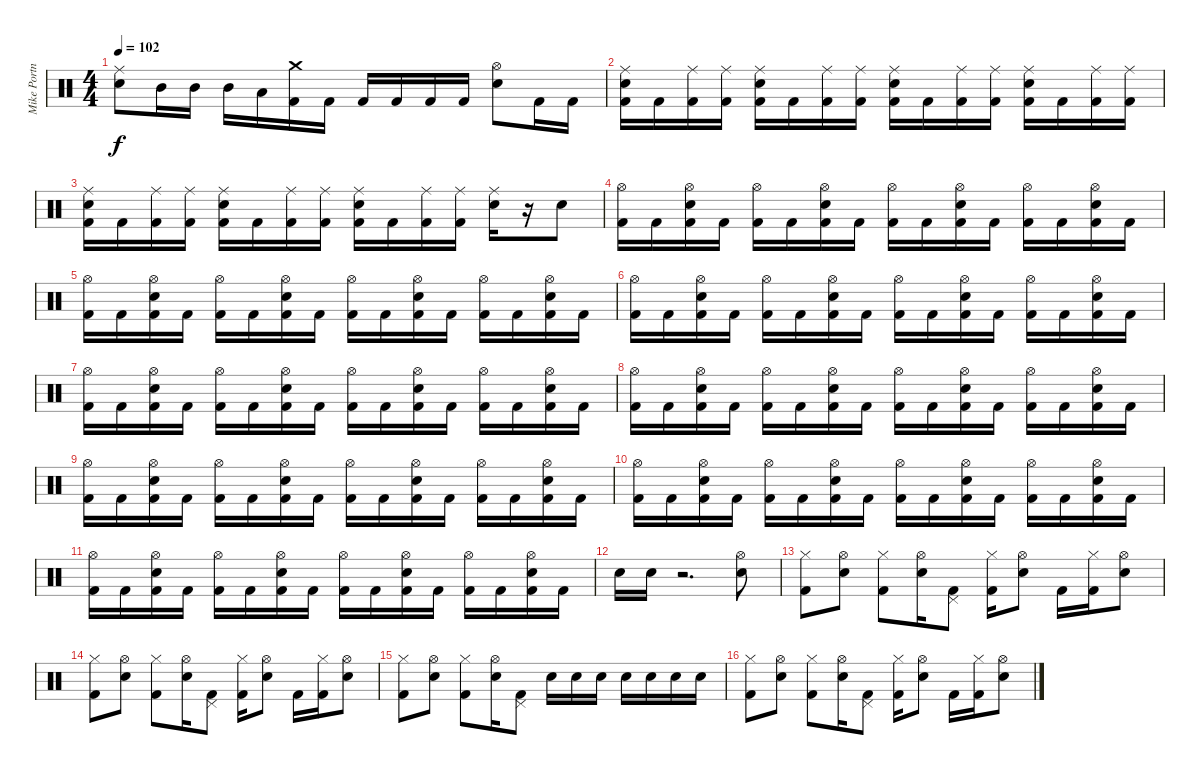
\track ("Mike Portnoy Drum " "Mike Portn") {instrument percussion}
\staff {score}
\articulation defaults
\ts (4 4)
\tempo 102
\clef neutral
\ks c
("Ride (middle)" "Electric Snare (hit)").8{dy f} "Mid Tom (hit)".16 "Mid Tom (hit)".16 "Mid Tom (hit)".16 "Low Tom (hit)".16 ("Crash medium (hit)" "Kick (hit) 2").16 "Kick (hit) 2".16 "Kick (hit) 2".16 "Kick (hit) 2".16 "Kick (hit) 2".16 "Kick (hit) 2".16 ("Hi-Hat (open)" "Electric Snare (hit)").8 "Kick (hit) 2".16 "Kick (hit) 2".16 |
("Ride (middle)" "Electric Snare (hit)" "Kick (hit) 2").16 "Kick (hit) 2".16 ("Ride (middle)" "Kick (hit) 2").16 ("Ride (middle)" "Kick (hit) 2").16 ("Ride (middle)" "Electric Snare (hit)" "Kick (hit) 2").16 "Kick (hit) 2".16 ("Ride (middle)" "Kick (hit) 2").16 ("Ride (middle)" "Kick (hit) 2").16 ("Ride (middle)" "Electric Snare (hit)" "Kick (hit) 2").16 "Kick (hit) 2".16 ("Ride (middle)" "Kick (hit) 2").16 ("Ride (middle)" "Kick (hit) 2").16 ("Ride (middle)" "Electric Snare (hit)" "Kick (hit) 2").16 "Kick (hit) 2".16 ("Ride (middle)" "Kick (hit) 2").16 ("Ride (middle)" "Kick (hit) 2").16 |
("Ride (middle)" "Electric Snare (hit)" "Kick (hit) 2").16 "Kick (hit) 2".16 ("Ride (middle)" "Kick (hit) 2").16 ("Ride (middle)" "Kick (hit) 2").16 ("Ride (middle)" "Electric Snare (hit)" "Kick (hit) 2").16 "Kick (hit) 2".16 ("Ride (middle)" "Kick (hit) 2").16 ("Ride (middle)" "Kick (hit) 2").16 ("Ride (middle)" "Electric Snare (hit)" "Kick (hit) 2").16 "Kick (hit) 2".16 ("Ride (middle)" "Kick (hit) 2").16 ("Ride (middle)" "Kick (hit) 2").16 ("Ride (middle)" "Electric Snare (hit)").16 r.16 "Electric Snare (hit)".8 |
("Hi-Hat (open)" "Kick (hit) 2").16 "Kick (hit) 2".16 ("Hi-Hat (open)" "Electric Snare (hit)" "Kick (hit) 2").16 "Kick (hit) 2".16 ("Hi-Hat (open)" "Kick (hit) 2").16 "Kick (hit) 2".16 ("Hi-Hat (open)" "Electric Snare (hit)" "Kick (hit) 2").16 "Kick (hit) 2".16 ("Hi-Hat (open)" "Kick (hit) 2").16 "Kick (hit) 2".16 ("Hi-Hat (open)" "Electric Snare (hit)" "Kick (hit) 2").16 "Kick (hit) 2".16 ("Hi-Hat (open)" "Kick (hit) 2").16 "Kick (hit) 2".16 ("Hi-Hat (open)" "Electric Snare (hit)" "Kick (hit) 2").16 "Kick (hit) 2".16 |
("Hi-Hat (open)" "Kick (hit) 2").16 "Kick (hit) 2".16 ("Hi-Hat (open)" "Electric Snare (hit)" "Kick (hit) 2").16 "Kick (hit) 2".16 ("Hi-Hat (open)" "Kick (hit) 2").16 "Kick (hit) 2".16 ("Hi-Hat (open)" "Electric Snare (hit)" "Kick (hit) 2").16 "Kick (hit) 2".16 ("Hi-Hat (open)" "Kick (hit) 2").16 "Kick (hit) 2".16 ("Hi-Hat (open)" "Electric Snare (hit)" "Kick (hit) 2").16 "Kick (hit) 2".16 ("Hi-Hat (open)" "Kick (hit) 2").16 "Kick (hit) 2".16 ("Hi-Hat (open)" "Electric Snare (hit)" "Kick (hit) 2").16 "Kick (hit) 2".16 |
("Hi-Hat (open)" "Kick (hit) 2").16 "Kick (hit) 2".16 ("Hi-Hat (open)" "Electric Snare (hit)" "Kick (hit) 2").16 "Kick (hit) 2".16 ("Hi-Hat (open)" "Kick (hit) 2").16 "Kick (hit) 2".16 ("Hi-Hat (open)" "Electric Snare (hit)" "Kick (hit) 2").16 "Kick (hit) 2".16 ("Hi-Hat (open)" "Kick (hit) 2").16 "Kick (hit) 2".16 ("Hi-Hat (open)" "Electric Snare (hit)" "Kick (hit) 2").16 "Kick (hit) 2".16 ("Hi-Hat (open)" "Kick (hit) 2").16 "Kick (hit) 2".16 ("Hi-Hat (open)" "Electric Snare (hit)" "Kick (hit) 2").16 "Kick (hit) 2".16 |
("Hi-Hat (open)" "Kick (hit) 2").16 "Kick (hit) 2".16 ("Hi-Hat (open)" "Electric Snare (hit)" "Kick (hit) 2").16 "Kick (hit) 2".16 ("Hi-Hat (open)" "Kick (hit) 2").16 "Kick (hit) 2".16 ("Hi-Hat (open)" "Electric Snare (hit)" "Kick (hit) 2").16 "Kick (hit) 2".16 ("Hi-Hat (open)" "Kick (hit) 2").16 "Kick (hit) 2".16 ("Hi-Hat (open)" "Electric Snare (hit)" "Kick (hit) 2").16 "Kick (hit) 2".16 ("Hi-Hat (open)" "Kick (hit) 2").16 "Kick (hit) 2".16 ("Hi-Hat (open)" "Electric Snare (hit)" "Kick (hit) 2").16 "Kick (hit) 2".16 |
("Hi-Hat (open)" "Kick (hit) 2").16 "Kick (hit) 2".16 ("Hi-Hat (open)" "Electric Snare (hit)" "Kick (hit) 2").16 "Kick (hit) 2".16 ("Hi-Hat (open)" "Kick (hit) 2").16 "Kick (hit) 2".16 ("Hi-Hat (open)" "Electric Snare (hit)" "Kick (hit) 2").16 "Kick (hit) 2".16 ("Hi-Hat (open)" "Kick (hit) 2").16 "Kick (hit) 2".16 ("Hi-Hat (open)" "Electric Snare (hit)" "Kick (hit) 2").16 "Kick (hit) 2".16 ("Hi-Hat (open)" "Kick (hit) 2").16 "Kick (hit) 2".16 ("Hi-Hat (open)" "Electric Snare (hit)" "Kick (hit) 2").16 "Kick (hit) 2".16 |
("Hi-Hat (open)" "Kick (hit) 2").16 "Kick (hit) 2".16 ("Hi-Hat (open)" "Electric Snare (hit)" "Kick (hit) 2").16 "Kick (hit) 2".16 ("Hi-Hat (open)" "Kick (hit) 2").16 "Kick (hit) 2".16 ("Hi-Hat (open)" "Electric Snare (hit)" "Kick (hit) 2").16 "Kick (hit) 2".16 ("Hi-Hat (open)" "Kick (hit) 2").16 "Kick (hit) 2".16 ("Hi-Hat (open)" "Electric Snare (hit)" "Kick (hit) 2").16 "Kick (hit) 2".16 ("Hi-Hat (open)" "Kick (hit) 2").16 "Kick (hit) 2".16 ("Hi-Hat (open)" "Electric Snare (hit)" "Kick (hit) 2").16 "Kick (hit) 2".16 |
("Hi-Hat (open)" "Kick (hit) 2").16 "Kick (hit) 2".16 ("Hi-Hat (open)" "Electric Snare (hit)" "Kick (hit) 2").16 "Kick (hit) 2".16 ("Hi-Hat (open)" "Kick (hit) 2").16 "Kick (hit) 2".16 ("Hi-Hat (open)" "Electric Snare (hit)" "Kick (hit) 2").16 "Kick (hit) 2".16 ("Hi-Hat (open)" "Kick (hit) 2").16 "Kick (hit) 2".16 ("Hi-Hat (open)" "Electric Snare (hit)" "Kick (hit) 2").16 "Kick (hit) 2".16 ("Hi-Hat (open)" "Kick (hit) 2").16 "Kick (hit) 2".16 ("Hi-Hat (open)" "Electric Snare (hit)" "Kick (hit) 2").16 "Kick (hit) 2".16 |
("Hi-Hat (open)" "Kick (hit) 2").16 "Kick (hit) 2".16 ("Hi-Hat (open)" "Electric Snare (hit)" "Kick (hit) 2").16 "Kick (hit) 2".16 ("Hi-Hat (open)" "Kick (hit) 2").16 "Kick (hit) 2".16 ("Hi-Hat (open)" "Electric Snare (hit)" "Kick (hit) 2").16 "Kick (hit) 2".16 ("Hi-Hat (open)" "Kick (hit) 2").16 "Kick (hit) 2".16 ("Hi-Hat (open)" "Electric Snare (hit)" "Kick (hit) 2").16 "Kick (hit) 2".16 ("Hi-Hat (open)" "Kick (hit) 2").16 "Kick (hit) 2".16 ("Hi-Hat (open)" "Electric Snare (hit)" "Kick (hit) 2").16 "Kick (hit) 2".16 |
"Electric Snare (hit)".16 "Electric Snare (hit)".16 r.2{d} ("Hi-Hat (open)" "Electric Snare (hit)").8 |
("Hi-Hat (closed)" "Kick (hit) 2").8 ("Hi-Hat (open)" "Electric Snare (hit)").8 ("Hi-Hat (closed)" "Kick (hit) 2").8 ("Hi-Hat (open)" "Electric Snare (hit)").16 ("Pedal Hi-Hat (hit)" "Kick (hit) 2").8 ("Hi-Hat (closed)" "Kick (hit) 2").16 ("Hi-Hat (open)" "Electric Snare (hit)").8 "Kick (hit) 2".16 ("Hi-Hat (closed)" "Kick (hit) 2").16 ("Hi-Hat (open)" "Electric Snare (hit)").8 |
("Hi-Hat (closed)" "Kick (hit) 2").8 ("Hi-Hat (open)" "Electric Snare (hit)").8 ("Hi-Hat (closed)" "Kick (hit) 2").8 ("Hi-Hat (open)" "Electric Snare (hit)").16 ("Pedal Hi-Hat (hit)" "Kick (hit) 2").8 ("Hi-Hat (closed)" "Kick (hit) 2").16 ("Hi-Hat (open)" "Electric Snare (hit)").8 "Kick (hit) 2".16 ("Hi-Hat (closed)" "Kick (hit) 2").16 ("Hi-Hat (open)" "Electric Snare (hit)").8 |
("Hi-Hat (closed)" "Kick (hit) 2").8 ("Hi-Hat (open)" "Electric Snare (hit)").8 ("Hi-Hat (closed)" "Kick (hit) 2").8 ("Hi-Hat (open)" "Electric Snare (hit)").16 ("Pedal Hi-Hat (hit)" "Kick (hit) 2").8 "Electric Snare (hit)".16 "Electric Snare (hit)".16 "Electric Snare (hit)".16 "Electric Snare (hit)".16 "Electric Snare (hit)".16 "Electric Snare (hit)".16 "Electric Snare (hit)".16 |
("Hi-Hat (closed)" "Kick (hit) 2").8 ("Hi-Hat (open)" "Electric Snare (hit)").8 ("Hi-Hat (closed)" "Kick (hit) 2").8 ("Hi-Hat (open)" "Electric Snare (hit)").16 ("Pedal Hi-Hat (hit)" "Kick (hit) 2").8 ("Hi-Hat (closed)" "Kick (hit) 2").16 ("Hi-Hat (open)" "Electric Snare (hit)").8 "Kick (hit) 2".16 ("Hi-Hat (closed)" "Kick (hit) 2").16 ("Hi-Hat (open)" "Electric Snare (hit)").8
